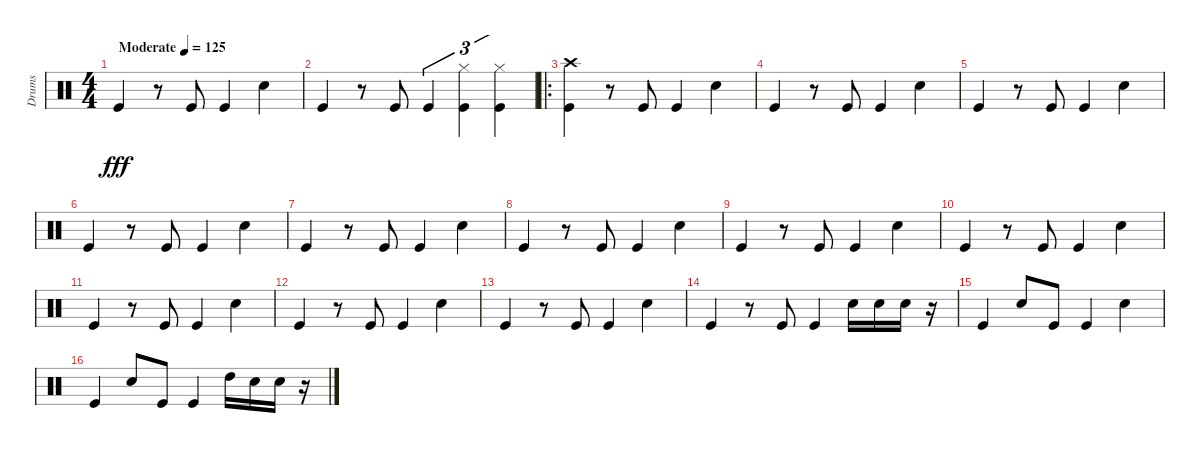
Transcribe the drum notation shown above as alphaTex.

\track ("Drums" "Drums") {instrument percussion}
\staff {score}
\articulation defaults
\ts (4 4)
\tempo (125 "Moderate")
\clef neutral
\ks c "Kick (hit)".4{dy fff}
r.8 "Kick (hit)".8 "Kick (hit)".4 "Snare (hit) 2".4 |
"Kick (hit)".4 r.8 "Kick (hit)".8 "Kick (hit)".4{tu (3 2)} ("Hi-Hat (closed)" "Kick (hit)").4{tu (3 2)} ("Hi-Hat (closed)" "Kick (hit)").4{tu (3 2)} |
\ro
("Crash high (hit)" "Kick (hit)").4 r.8 "Kick (hit)".8 "Kick (hit)".4 "Snare (hit) 2".4 |
"Kick (hit)".4 r.8 "Kick (hit)".8 "Kick (hit)".4 "Snare (hit) 2".4 |
"Kick (hit)".4 r.8 "Kick (hit)".8 "Kick (hit)".4 "Snare (hit) 2".4 |
"Kick (hit)".4 r.8 "Kick (hit)".8 "Kick (hit)".4 "Snare (hit) 2".4 |
"Kick (hit)".4 r.8 "Kick (hit)".8 "Kick (hit)".4 "Snare (hit) 2".4 |
"Kick (hit)".4 r.8 "Kick (hit)".8 "Kick (hit)".4 "Snare (hit) 2".4 |
"Kick (hit)".4 r.8 "Kick (hit)".8 "Kick (hit)".4 "Snare (hit) 2".4 |
"Kick (hit)".4 r.8 "Kick (hit)".8 "Kick (hit)".4 "Snare (hit) 2".4 |
"Kick (hit)".4 r.8 "Kick (hit)".8 "Kick (hit)".4 "Snare (hit) 2".4 |
"Kick (hit)".4 r.8 "Kick (hit)".8 "Kick (hit)".4 "Snare (hit) 2".4 |
"Kick (hit)".4 r.8 "Kick (hit)".8 "Kick (hit)".4 "Snare (hit) 2".4 |
"Kick (hit)".4 r.8 "Kick (hit)".8 "Kick (hit)".4 "Snare (hit) 2".16 "Snare (hit) 2".16 "Snare (hit) 2".16 r.16 |
"Kick (hit)".4 "Snare (hit) 2".8 "Kick (hit)".8 "Kick (hit)".4 "Snare (hit) 2".4 |
"Kick (hit)".4 "Snare (hit) 2".8 "Kick (hit)".8 "Kick (hit)".4 "High Tom (hit)".16 "Snare (hit) 2".16 "Snare (hit) 2".16 r.16
